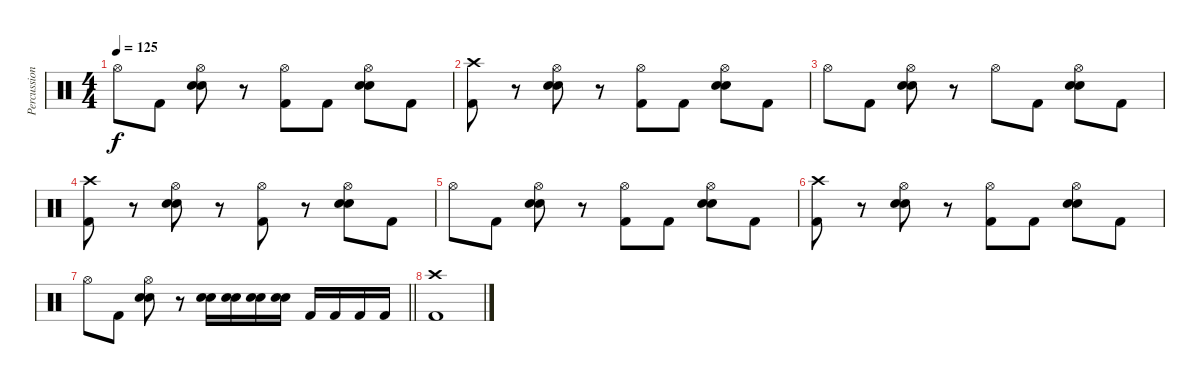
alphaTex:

\track ("Percussion" "Percussion") {instrument percussion}
\staff {score}
\articulation defaults
\ts (4 4)
\tempo 125
\clef neutral
\ks c "Hi-Hat (open)".8{dy f} "Kick (hit) 2".8
("Hi-Hat (open)" "Snare (hit) 2" "Electric Snare (hit)").8 r.8 ("Hi-Hat (open)" "Kick (hit) 2").8 "Kick (hit) 2".8 ("Hi-Hat (open)" "Snare (hit) 2" "Electric Snare (hit)").8 "Kick (hit) 2".8 |
("Crash high (hit)" "Kick (hit) 2").8 r.8 ("Hi-Hat (open)" "Snare (hit) 2" "Electric Snare (hit)").8 r.8 ("Hi-Hat (open)" "Kick (hit) 2").8 "Kick (hit) 2".8 ("Hi-Hat (open)" "Snare (hit) 2" "Electric Snare (hit)").8 "Kick (hit) 2".8 |
"Hi-Hat (open)".8 "Kick (hit) 2".8 ("Hi-Hat (open)" "Snare (hit) 2" "Electric Snare (hit)").8 r.8 "Hi-Hat (open)".8 "Kick (hit) 2".8 ("Hi-Hat (open)" "Snare (hit) 2" "Electric Snare (hit)").8 "Kick (hit) 2".8 |
("Crash high (hit)" "Kick (hit) 2").8 r.8 ("Hi-Hat (open)" "Snare (hit) 2" "Electric Snare (hit)").8 r.8 ("Hi-Hat (open)" "Kick (hit) 2").8 r.8 ("Hi-Hat (open)" "Snare (hit) 2" "Electric Snare (hit)").8 "Kick (hit) 2".8 |
"Hi-Hat (open)".8 "Kick (hit) 2".8 ("Hi-Hat (open)" "Snare (hit) 2" "Electric Snare (hit)").8 r.8 ("Hi-Hat (open)" "Kick (hit) 2").8 "Kick (hit) 2".8 ("Hi-Hat (open)" "Snare (hit) 2" "Electric Snare (hit)").8 "Kick (hit) 2".8 |
("Crash high (hit)" "Kick (hit) 2").8 r.8 ("Hi-Hat (open)" "Snare (hit) 2" "Electric Snare (hit)").8 r.8 ("Hi-Hat (open)" "Kick (hit) 2").8 "Kick (hit) 2".8 ("Hi-Hat (open)" "Snare (hit) 2" "Electric Snare (hit)").8 "Kick (hit) 2".8 |
\barLineRight lightlight "Hi-Hat (open)".8 "Kick (hit) 2".8
("Hi-Hat (open)" "Snare (hit) 2" "Electric Snare (hit)").8 r.8 ("Snare (hit) 2" "Electric Snare (hit)").16 ("Snare (hit) 2" "Electric Snare (hit)").16 ("Snare (hit) 2" "Electric Snare (hit)").16 ("Snare (hit) 2" "Electric Snare (hit)").16 "Kick (hit) 2".16 "Kick (hit) 2".16 "Kick (hit) 2".16 "Kick (hit) 2".16 |
("Crash high (hit)" "Kick (hit) 2").1
